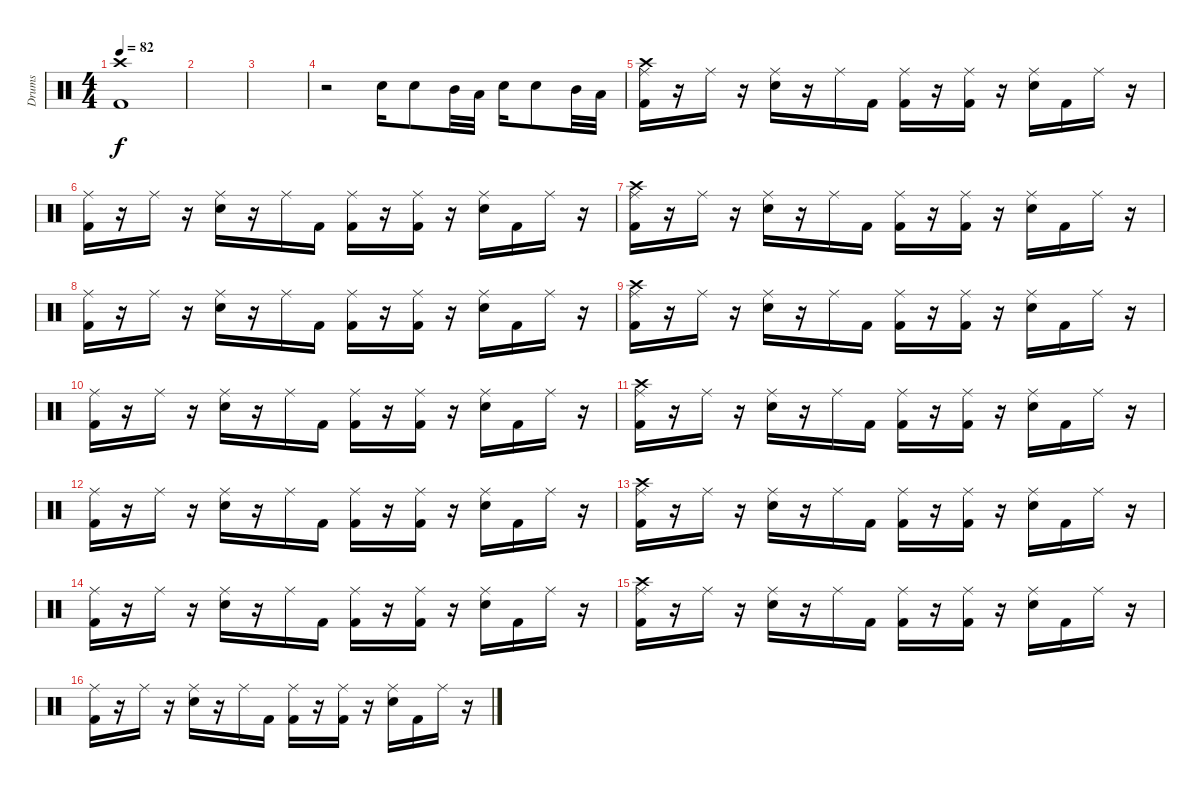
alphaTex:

\track ("Drums" "Drums") {instrument percussion}
\staff {score}
\articulation defaults
\ts (4 4)
\tempo 82
\clef neutral
\ks c
("Crash high (hit)" "Kick (hit) 2").1{dy f} |
|
|
r.2 "Snare (hit) 2".16 "Snare (hit) 2".8 "Mid Tom (hit)".32 "Low Tom (hit)".32 "Snare (hit) 2".16 "Snare (hit) 2".8 "Mid Tom (hit)".32 "Low Tom (hit)".32 |
("Crash high (hit)" "Ride (middle)" "Kick (hit) 2").16 r.16 "Ride (middle)".16 r.16 ("Ride (middle)" "Snare (hit) 2").16 r.16 "Ride (middle)".16 "Kick (hit) 2".16 ("Ride (middle)" "Kick (hit) 2").16 r.16 ("Ride (middle)" "Kick (hit) 2").16 r.16 ("Ride (middle)" "Snare (hit) 2").16 "Kick (hit) 2".16 "Ride (middle)".16 r.16 |
("Ride (middle)" "Kick (hit) 2").16 r.16 "Ride (middle)".16 r.16 ("Ride (middle)" "Snare (hit) 2").16 r.16 "Ride (middle)".16 "Kick (hit) 2".16 ("Ride (middle)" "Kick (hit) 2").16 r.16 ("Ride (middle)" "Kick (hit) 2").16 r.16 ("Ride (middle)" "Snare (hit) 2").16 "Kick (hit) 2".16 "Ride (middle)".16 r.16 |
("Crash high (hit)" "Ride (middle)" "Kick (hit) 2").16 r.16 "Ride (middle)".16 r.16 ("Ride (middle)" "Snare (hit) 2").16 r.16 "Ride (middle)".16 "Kick (hit) 2".16 ("Ride (middle)" "Kick (hit) 2").16 r.16 ("Ride (middle)" "Kick (hit) 2").16 r.16 ("Ride (middle)" "Snare (hit) 2").16 "Kick (hit) 2".16 "Ride (middle)".16 r.16 |
("Ride (middle)" "Kick (hit) 2").16 r.16 "Ride (middle)".16 r.16 ("Ride (middle)" "Snare (hit) 2").16 r.16 "Ride (middle)".16 "Kick (hit) 2".16 ("Ride (middle)" "Kick (hit) 2").16 r.16 ("Ride (middle)" "Kick (hit) 2").16 r.16 ("Ride (middle)" "Snare (hit) 2").16 "Kick (hit) 2".16 "Ride (middle)".16 r.16 |
("Crash high (hit)" "Ride (middle)" "Kick (hit) 2").16 r.16 "Ride (middle)".16 r.16 ("Ride (middle)" "Snare (hit) 2").16 r.16 "Ride (middle)".16 "Kick (hit) 2".16 ("Ride (middle)" "Kick (hit) 2").16 r.16 ("Ride (middle)" "Kick (hit) 2").16 r.16 ("Ride (middle)" "Snare (hit) 2").16 "Kick (hit) 2".16 "Ride (middle)".16 r.16 |
("Ride (middle)" "Kick (hit) 2").16 r.16 "Ride (middle)".16 r.16 ("Ride (middle)" "Snare (hit) 2").16 r.16 "Ride (middle)".16 "Kick (hit) 2".16 ("Ride (middle)" "Kick (hit) 2").16 r.16 ("Ride (middle)" "Kick (hit) 2").16 r.16 ("Ride (middle)" "Snare (hit) 2").16 "Kick (hit) 2".16 "Ride (middle)".16 r.16 |
("Crash high (hit)" "Ride (middle)" "Kick (hit) 2").16 r.16 "Ride (middle)".16 r.16 ("Ride (middle)" "Snare (hit) 2").16 r.16 "Ride (middle)".16 "Kick (hit) 2".16 ("Ride (middle)" "Kick (hit) 2").16 r.16 ("Ride (middle)" "Kick (hit) 2").16 r.16 ("Ride (middle)" "Snare (hit) 2").16 "Kick (hit) 2".16 "Ride (middle)".16 r.16 |
("Ride (middle)" "Kick (hit) 2").16 r.16 "Ride (middle)".16 r.16 ("Ride (middle)" "Snare (hit) 2").16 r.16 "Ride (middle)".16 "Kick (hit) 2".16 ("Ride (middle)" "Kick (hit) 2").16 r.16 ("Ride (middle)" "Kick (hit) 2").16 r.16 ("Ride (middle)" "Snare (hit) 2").16 "Kick (hit) 2".16 "Ride (middle)".16 r.16 |
("Crash high (hit)" "Ride (middle)" "Kick (hit) 2").16 r.16 "Ride (middle)".16 r.16 ("Ride (middle)" "Snare (hit) 2").16 r.16 "Ride (middle)".16 "Kick (hit) 2".16 ("Ride (middle)" "Kick (hit) 2").16 r.16 ("Ride (middle)" "Kick (hit) 2").16 r.16 ("Ride (middle)" "Snare (hit) 2").16 "Kick (hit) 2".16 "Ride (middle)".16 r.16 |
("Ride (middle)" "Kick (hit) 2").16 r.16 "Ride (middle)".16 r.16 ("Ride (middle)" "Snare (hit) 2").16 r.16 "Ride (middle)".16 "Kick (hit) 2".16 ("Ride (middle)" "Kick (hit) 2").16 r.16 ("Ride (middle)" "Kick (hit) 2").16 r.16 ("Ride (middle)" "Snare (hit) 2").16 "Kick (hit) 2".16 "Ride (middle)".16 r.16 |
("Crash high (hit)" "Ride (middle)" "Kick (hit) 2").16 r.16 "Ride (middle)".16 r.16 ("Ride (middle)" "Snare (hit) 2").16 r.16 "Ride (middle)".16 "Kick (hit) 2".16 ("Ride (middle)" "Kick (hit) 2").16 r.16 ("Ride (middle)" "Kick (hit) 2").16 r.16 ("Ride (middle)" "Snare (hit) 2").16 "Kick (hit) 2".16 "Ride (middle)".16 r.16 |
("Ride (middle)" "Kick (hit) 2").16 r.16 "Ride (middle)".16 r.16 ("Ride (middle)" "Snare (hit) 2").16 r.16 "Ride (middle)".16 "Kick (hit) 2".16 ("Ride (middle)" "Kick (hit) 2").16 r.16 ("Ride (middle)" "Kick (hit) 2").16 r.16 ("Ride (middle)" "Snare (hit) 2").16 "Kick (hit) 2".16 "Ride (middle)".16 r.16
